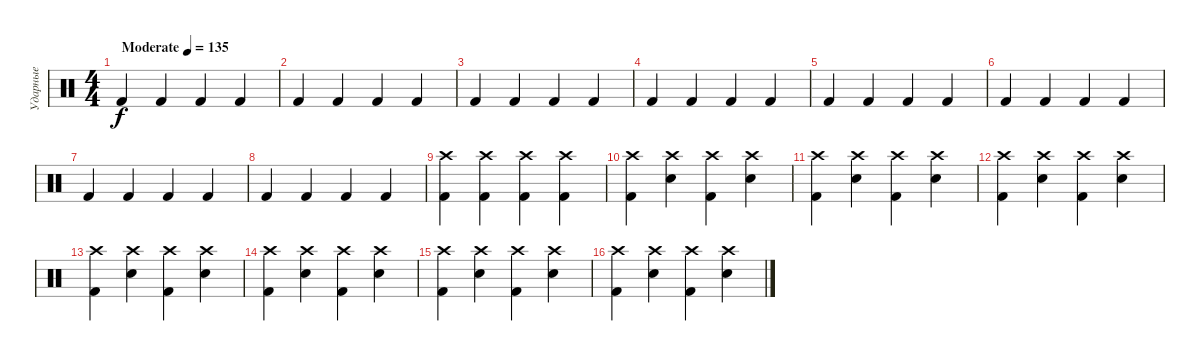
\track ("Ударные" "Ударные") {instrument percussion}
\staff {score}
\articulation defaults
\ts (4 4)
\tempo (135 "Moderate")
\clef neutral
\ks c "Kick (hit) 2".4{dy f} "Kick (hit) 2".4 "Kick (hit) 2".4 "Kick (hit) 2".4
|
"Kick (hit) 2".4 "Kick (hit) 2".4 "Kick (hit) 2".4 "Kick (hit) 2".4 |
"Kick (hit) 2".4 "Kick (hit) 2".4 "Kick (hit) 2".4 "Kick (hit) 2".4 |
"Kick (hit) 2".4 "Kick (hit) 2".4 "Kick (hit) 2".4 "Kick (hit) 2".4 |
"Kick (hit) 2".4 "Kick (hit) 2".4 "Kick (hit) 2".4 "Kick (hit) 2".4 |
"Kick (hit) 2".4 "Kick (hit) 2".4 "Kick (hit) 2".4 "Kick (hit) 2".4 |
"Kick (hit) 2".4 "Kick (hit) 2".4 "Kick (hit) 2".4 "Kick (hit) 2".4 |
"Kick (hit) 2".4 "Kick (hit) 2".4 "Kick (hit) 2".4 "Kick (hit) 2".4 |
("Crash high (hit)" "Kick (hit) 2").4 ("Crash high (hit)" "Kick (hit) 2").4 ("Crash high (hit)" "Kick (hit) 2").4 ("Crash high (hit)" "Kick (hit) 2").4 |
("Crash high (hit)" "Kick (hit) 2").4 ("Crash high (hit)" "Snare (hit) 2").4 ("Crash high (hit)" "Kick (hit) 2").4 ("Crash high (hit)" "Snare (hit) 2").4 |
("Crash high (hit)" "Kick (hit) 2").4 ("Crash high (hit)" "Snare (hit) 2").4 ("Crash high (hit)" "Kick (hit) 2").4 ("Crash high (hit)" "Snare (hit) 2").4 |
("Crash high (hit)" "Kick (hit) 2").4 ("Crash high (hit)" "Snare (hit) 2").4 ("Crash high (hit)" "Kick (hit) 2").4 ("Crash high (hit)" "Snare (hit) 2").4 |
("Crash high (hit)" "Kick (hit) 2").4 ("Crash high (hit)" "Snare (hit) 2").4 ("Crash high (hit)" "Kick (hit) 2").4 ("Crash high (hit)" "Snare (hit) 2").4 |
("Crash high (hit)" "Kick (hit) 2").4 ("Crash high (hit)" "Snare (hit) 2").4 ("Crash high (hit)" "Kick (hit) 2").4 ("Crash high (hit)" "Snare (hit) 2").4 |
("Crash high (hit)" "Kick (hit) 2").4 ("Crash high (hit)" "Snare (hit) 2").4 ("Crash high (hit)" "Kick (hit) 2").4 ("Crash high (hit)" "Snare (hit) 2").4 |
("Crash high (hit)" "Kick (hit) 2").4 ("Crash high (hit)" "Snare (hit) 2").4 ("Crash high (hit)" "Kick (hit) 2").4 ("Crash high (hit)" "Snare (hit) 2").4
